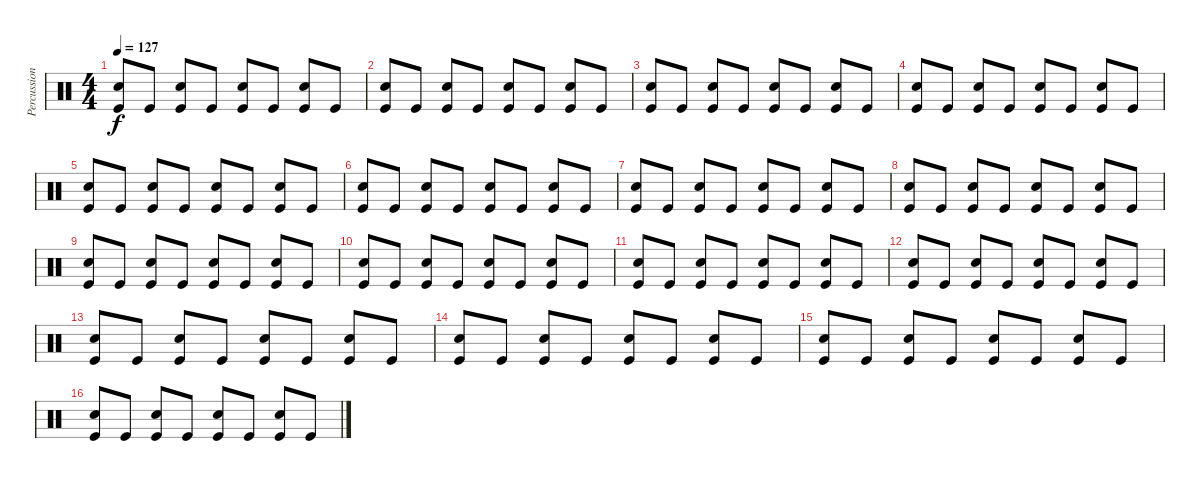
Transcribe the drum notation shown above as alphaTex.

\track ("Percussion" "Percussion") {instrument percussion}
\staff {score}
\articulation defaults
\ts (4 4)
\tempo 127
\clef neutral
\ks c
("Snare (hit) 2" "Kick (hit)").8{dy f} "Kick (hit)".8 ("Snare (hit) 2" "Kick (hit)").8 "Kick (hit)".8 ("Snare (hit) 2" "Kick (hit)").8 "Kick (hit)".8 ("Snare (hit) 2" "Kick (hit)").8 "Kick (hit)".8 |
("Snare (hit) 2" "Kick (hit)").8 "Kick (hit)".8 ("Snare (hit) 2" "Kick (hit)").8 "Kick (hit)".8 ("Snare (hit) 2" "Kick (hit)").8 "Kick (hit)".8 ("Snare (hit) 2" "Kick (hit)").8 "Kick (hit)".8 |
("Snare (hit) 2" "Kick (hit)").8 "Kick (hit)".8 ("Snare (hit) 2" "Kick (hit)").8 "Kick (hit)".8 ("Snare (hit) 2" "Kick (hit)").8 "Kick (hit)".8 ("Snare (hit) 2" "Kick (hit)").8 "Kick (hit)".8 |
("Snare (hit) 2" "Kick (hit)").8 "Kick (hit)".8 ("Snare (hit) 2" "Kick (hit)").8 "Kick (hit)".8 ("Snare (hit) 2" "Kick (hit)").8 "Kick (hit)".8 ("Snare (hit) 2" "Kick (hit)").8 "Kick (hit)".8 |
("Snare (hit) 2" "Kick (hit)").8 "Kick (hit)".8 ("Snare (hit) 2" "Kick (hit)").8 "Kick (hit)".8 ("Snare (hit) 2" "Kick (hit)").8 "Kick (hit)".8 ("Snare (hit) 2" "Kick (hit)").8 "Kick (hit)".8 |
("Snare (hit) 2" "Kick (hit)").8 "Kick (hit)".8 ("Snare (hit) 2" "Kick (hit)").8 "Kick (hit)".8 ("Snare (hit) 2" "Kick (hit)").8 "Kick (hit)".8 ("Snare (hit) 2" "Kick (hit)").8 "Kick (hit)".8 |
("Snare (hit) 2" "Kick (hit)").8 "Kick (hit)".8 ("Snare (hit) 2" "Kick (hit)").8 "Kick (hit)".8 ("Snare (hit) 2" "Kick (hit)").8 "Kick (hit)".8 ("Snare (hit) 2" "Kick (hit)").8 "Kick (hit)".8 |
("Snare (hit) 2" "Kick (hit)").8 "Kick (hit)".8 ("Snare (hit) 2" "Kick (hit)").8 "Kick (hit)".8 ("Snare (hit) 2" "Kick (hit)").8 "Kick (hit)".8 ("Snare (hit) 2" "Kick (hit)").8 "Kick (hit)".8 |
("Snare (hit) 2" "Kick (hit)").8 "Kick (hit)".8 ("Snare (hit) 2" "Kick (hit)").8 "Kick (hit)".8 ("Snare (hit) 2" "Kick (hit)").8 "Kick (hit)".8 ("Snare (hit) 2" "Kick (hit)").8 "Kick (hit)".8 |
("Snare (hit) 2" "Kick (hit)").8 "Kick (hit)".8 ("Snare (hit) 2" "Kick (hit)").8 "Kick (hit)".8 ("Snare (hit) 2" "Kick (hit)").8 "Kick (hit)".8 ("Snare (hit) 2" "Kick (hit)").8 "Kick (hit)".8 |
("Snare (hit) 2" "Kick (hit)").8 "Kick (hit)".8 ("Snare (hit) 2" "Kick (hit)").8 "Kick (hit)".8 ("Snare (hit) 2" "Kick (hit)").8 "Kick (hit)".8 ("Snare (hit) 2" "Kick (hit)").8 "Kick (hit)".8 |
("Snare (hit) 2" "Kick (hit)").8 "Kick (hit)".8 ("Snare (hit) 2" "Kick (hit)").8 "Kick (hit)".8 ("Snare (hit) 2" "Kick (hit)").8 "Kick (hit)".8 ("Snare (hit) 2" "Kick (hit)").8 "Kick (hit)".8 |
("Snare (hit) 2" "Kick (hit)").8 "Kick (hit)".8 ("Snare (hit) 2" "Kick (hit)").8 "Kick (hit)".8 ("Snare (hit) 2" "Kick (hit)").8 "Kick (hit)".8 ("Snare (hit) 2" "Kick (hit)").8 "Kick (hit)".8 |
("Snare (hit) 2" "Kick (hit)").8 "Kick (hit)".8 ("Snare (hit) 2" "Kick (hit)").8 "Kick (hit)".8 ("Snare (hit) 2" "Kick (hit)").8 "Kick (hit)".8 ("Snare (hit) 2" "Kick (hit)").8 "Kick (hit)".8 |
("Snare (hit) 2" "Kick (hit)").8 "Kick (hit)".8 ("Snare (hit) 2" "Kick (hit)").8 "Kick (hit)".8 ("Snare (hit) 2" "Kick (hit)").8 "Kick (hit)".8 ("Snare (hit) 2" "Kick (hit)").8 "Kick (hit)".8 |
("Snare (hit) 2" "Kick (hit)").8 "Kick (hit)".8 ("Snare (hit) 2" "Kick (hit)").8 "Kick (hit)".8 ("Snare (hit) 2" "Kick (hit)").8 "Kick (hit)".8 ("Snare (hit) 2" "Kick (hit)").8 "Kick (hit)".8
